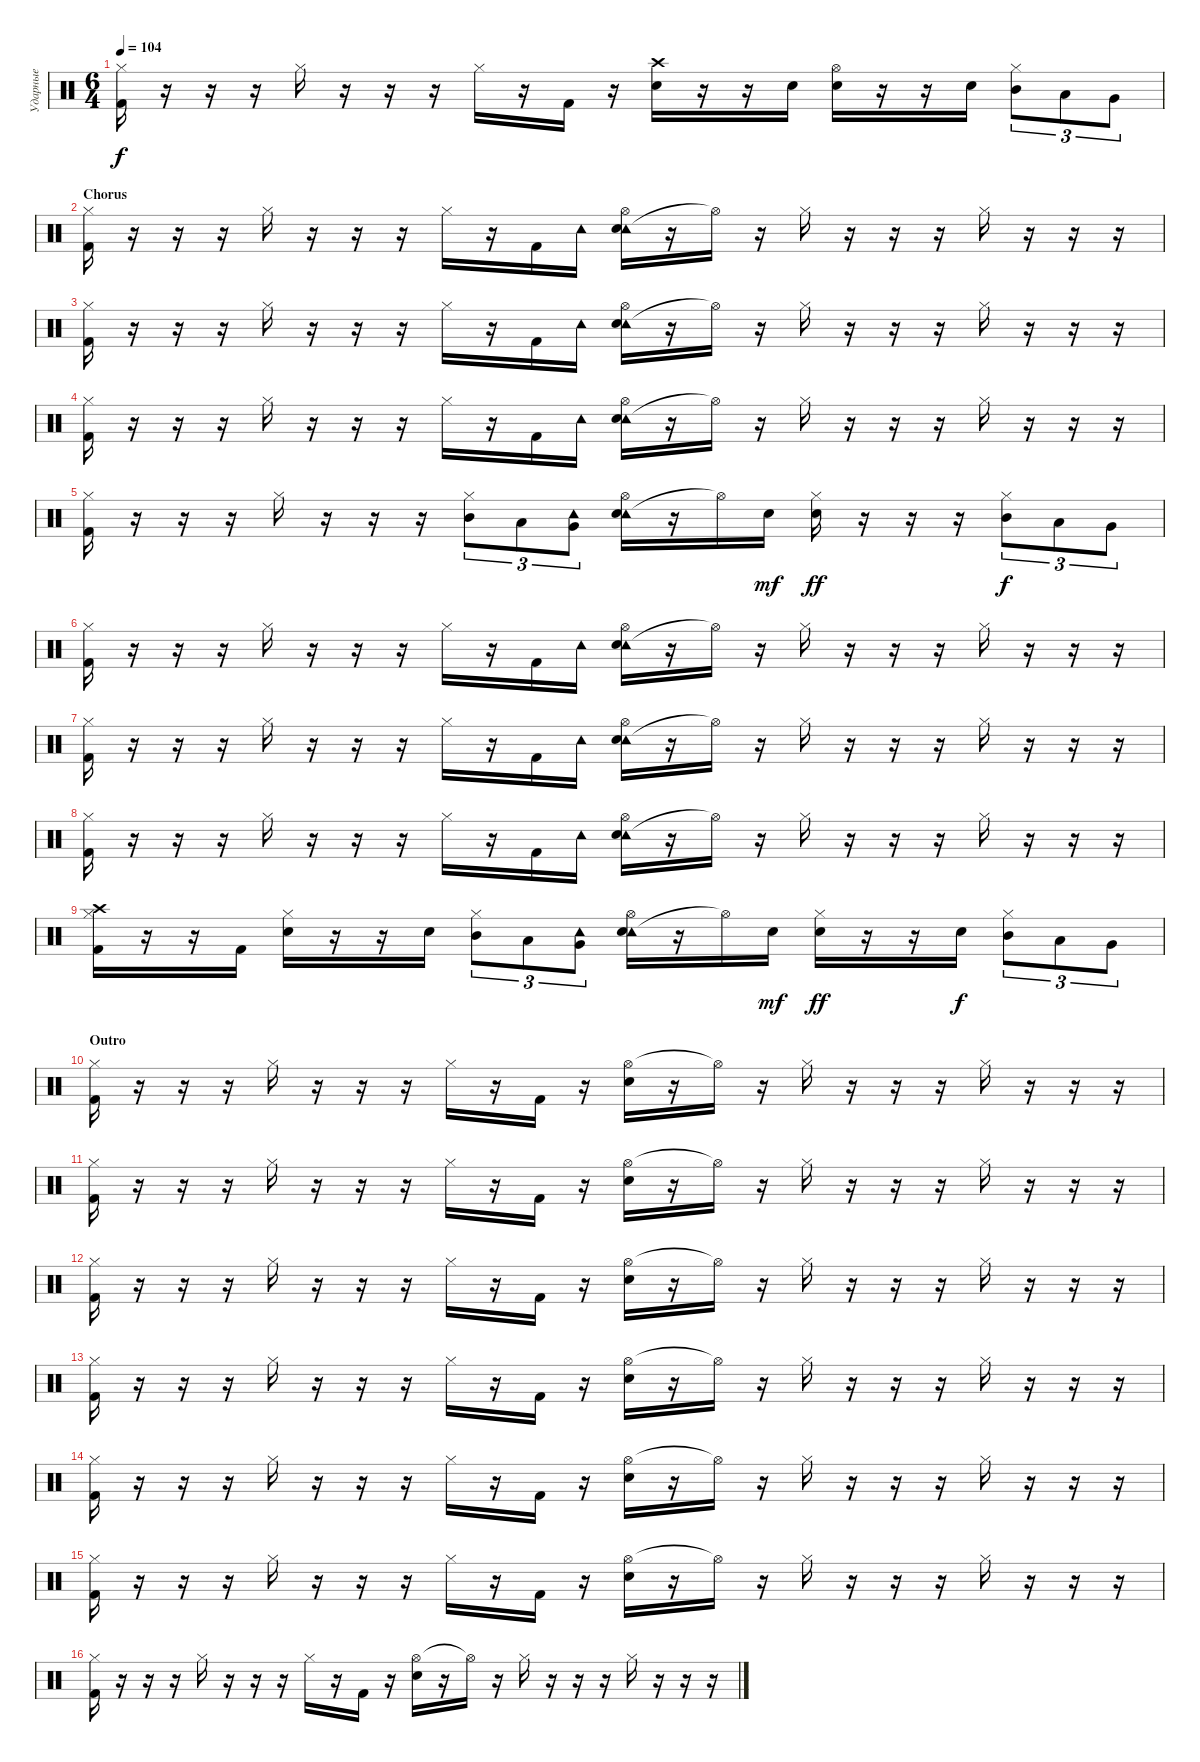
\track ("Ударные" "Ударные") {instrument percussion}
\staff {score}
\articulation defaults
\ts (6 4)
\tempo 104
\clef neutral
\ks c
("Hi-Hat (closed)" "Kick (hit) 2").16{dy f} r.16 r.16 r.16 "Hi-Hat (closed)".16 r.16 r.16 r.16 "Hi-Hat (closed)".16 r.16 "Kick (hit) 2".16 r.16 ("Crash high (hit)" "Electric Snare (hit)").16 r.16 r.16 "Electric Snare (hit)".16 ("Hi-Hat (open)" "Electric Snare (hit)").16 r.16 r.16 "Electric Snare (hit)".16 ("Hi-Hat (closed)" "Mid Tom (hit)").8{tu (3 2)} "Low Tom (hit)".8{tu (3 2)} "Very Low Tom (hit)".8{tu (3 2)} |
\section ("" "Chorus")
("Hi-Hat (closed)" "Kick (hit) 2").16 r.16 r.16 r.16 "Hi-Hat (closed)".16 r.16 r.16 r.16 "Hi-Hat (closed)".16 r.16 "Kick (hit) 2".16 "Tambourine (hit)".16 ("Tambourine (hit)" "Hi-Hat (open)" "Electric Snare (hit)").16 r.16 "Hi-Hat (open)"{t}.16 r.16 "Hi-Hat (closed)".16 r.16 r.16 r.16 "Hi-Hat (closed)".16 r.16 r.16 r.16 |
("Hi-Hat (closed)" "Kick (hit) 2").16 r.16 r.16 r.16 "Hi-Hat (closed)".16 r.16 r.16 r.16 "Hi-Hat (closed)".16 r.16 "Kick (hit) 2".16 "Tambourine (hit)".16 ("Tambourine (hit)" "Hi-Hat (open)" "Electric Snare (hit)").16 r.16 "Hi-Hat (open)"{t}.16 r.16 "Hi-Hat (closed)".16 r.16 r.16 r.16 "Hi-Hat (closed)".16 r.16 r.16 r.16 |
("Hi-Hat (closed)" "Kick (hit) 2").16 r.16 r.16 r.16 "Hi-Hat (closed)".16 r.16 r.16 r.16 "Hi-Hat (closed)".16 r.16 "Kick (hit) 2".16 "Tambourine (hit)".16 ("Tambourine (hit)" "Hi-Hat (open)" "Electric Snare (hit)").16 r.16 "Hi-Hat (open)"{t}.16 r.16 "Hi-Hat (closed)".16 r.16 r.16 r.16 "Hi-Hat (closed)".16 r.16 r.16 r.16 |
("Hi-Hat (closed)" "Kick (hit) 2").16 r.16 r.16 r.16 "Hi-Hat (closed)".16 r.16 r.16 r.16 ("Hi-Hat (closed)" "Mid Tom (hit)").8{tu (3 2)} "Low Tom (hit)".8{tu (3 2)} ("Tambourine (hit)" "Very Low Tom (hit)").8{tu (3 2)} ("Tambourine (hit)" "Hi-Hat (open)" "Electric Snare (hit)").16 r.16 "Hi-Hat (open)"{t}.16 "Electric Snare (hit)".16{dy mf} ("Hi-Hat (closed)" "Electric Snare (hit)").16{dy ff} r.16 r.16 r.16 ("Hi-Hat (closed)" "Mid Tom (hit)").8{tu (3 2) dy f} "Low Tom (hit)".8{tu (3 2)} "Very Low Tom (hit)".8{tu (3 2)} |
("Hi-Hat (closed)" "Kick (hit) 2").16 r.16 r.16 r.16 "Hi-Hat (closed)".16 r.16 r.16 r.16 "Hi-Hat (closed)".16 r.16 "Kick (hit) 2".16 "Tambourine (hit)".16 ("Tambourine (hit)" "Hi-Hat (open)" "Electric Snare (hit)").16 r.16 "Hi-Hat (open)"{t}.16 r.16 "Hi-Hat (closed)".16 r.16 r.16 r.16 "Hi-Hat (closed)".16 r.16 r.16 r.16 |
("Hi-Hat (closed)" "Kick (hit) 2").16 r.16 r.16 r.16 "Hi-Hat (closed)".16 r.16 r.16 r.16 "Hi-Hat (closed)".16 r.16 "Kick (hit) 2".16 "Tambourine (hit)".16 ("Tambourine (hit)" "Hi-Hat (open)" "Electric Snare (hit)").16 r.16 "Hi-Hat (open)"{t}.16 r.16 "Hi-Hat (closed)".16 r.16 r.16 r.16 "Hi-Hat (closed)".16 r.16 r.16 r.16 |
("Hi-Hat (closed)" "Kick (hit) 2").16 r.16 r.16 r.16 "Hi-Hat (closed)".16 r.16 r.16 r.16 "Hi-Hat (closed)".16 r.16 "Kick (hit) 2".16 "Tambourine (hit)".16 ("Tambourine (hit)" "Hi-Hat (open)" "Electric Snare (hit)").16 r.16 "Hi-Hat (open)"{t}.16 r.16 "Hi-Hat (closed)".16 r.16 r.16 r.16 "Hi-Hat (closed)".16 r.16 r.16 r.16 |
("Crash high (hit)" "Hi-Hat (closed)" "Kick (hit) 2").16 r.16 r.16 "Kick (hit) 2".16 ("Hi-Hat (closed)" "Electric Snare (hit)").16 r.16 r.16 "Electric Snare (hit)".16 ("Hi-Hat (closed)" "Mid Tom (hit)").8{tu (3 2)} "Low Tom (hit)".8{tu (3 2)} ("Tambourine (hit)" "Very Low Tom (hit)").8{tu (3 2)} ("Tambourine (hit)" "Hi-Hat (open)" "Electric Snare (hit)").16 r.16 "Hi-Hat (open)"{t}.16 "Electric Snare (hit)".16{dy mf} ("Hi-Hat (closed)" "Electric Snare (hit)").16{dy ff} r.16 r.16 "Electric Snare (hit)".16{dy f} ("Hi-Hat (closed)" "Mid Tom (hit)").8{tu (3 2)} "Low Tom (hit)".8{tu (3 2)} "Very Low Tom (hit)".8{tu (3 2)} |
\section ("" "Outro")
("Hi-Hat (closed)" "Kick (hit) 2").16 r.16 r.16 r.16 "Hi-Hat (closed)".16 r.16 r.16 r.16 "Hi-Hat (closed)".16 r.16 "Kick (hit) 2".16 r.16 ("Hi-Hat (open)" "Electric Snare (hit)").16 r.16 "Hi-Hat (open)"{t}.16 r.16 "Hi-Hat (closed)".16 r.16 r.16 r.16 "Hi-Hat (closed)".16 r.16 r.16 r.16 |
("Hi-Hat (closed)" "Kick (hit) 2").16 r.16 r.16 r.16 "Hi-Hat (closed)".16 r.16 r.16 r.16 "Hi-Hat (closed)".16 r.16 "Kick (hit) 2".16 r.16 ("Hi-Hat (open)" "Electric Snare (hit)").16 r.16 "Hi-Hat (open)"{t}.16 r.16 "Hi-Hat (closed)".16 r.16 r.16 r.16 "Hi-Hat (closed)".16 r.16 r.16 r.16 |
("Hi-Hat (closed)" "Kick (hit) 2").16 r.16 r.16 r.16 "Hi-Hat (closed)".16 r.16 r.16 r.16 "Hi-Hat (closed)".16 r.16 "Kick (hit) 2".16 r.16 ("Hi-Hat (open)" "Electric Snare (hit)").16 r.16 "Hi-Hat (open)"{t}.16 r.16 "Hi-Hat (closed)".16 r.16 r.16 r.16 "Hi-Hat (closed)".16 r.16 r.16 r.16 |
("Hi-Hat (closed)" "Kick (hit) 2").16 r.16 r.16 r.16 "Hi-Hat (closed)".16 r.16 r.16 r.16 "Hi-Hat (closed)".16 r.16 "Kick (hit) 2".16 r.16 ("Hi-Hat (open)" "Electric Snare (hit)").16 r.16 "Hi-Hat (open)"{t}.16 r.16 "Hi-Hat (closed)".16 r.16 r.16 r.16 "Hi-Hat (closed)".16 r.16 r.16 r.16 |
("Hi-Hat (closed)" "Kick (hit) 2").16 r.16 r.16 r.16 "Hi-Hat (closed)".16 r.16 r.16 r.16 "Hi-Hat (closed)".16 r.16 "Kick (hit) 2".16 r.16 ("Hi-Hat (open)" "Electric Snare (hit)").16 r.16 "Hi-Hat (open)"{t}.16 r.16 "Hi-Hat (closed)".16 r.16 r.16 r.16 "Hi-Hat (closed)".16 r.16 r.16 r.16 |
("Hi-Hat (closed)" "Kick (hit) 2").16 r.16 r.16 r.16 "Hi-Hat (closed)".16 r.16 r.16 r.16 "Hi-Hat (closed)".16 r.16 "Kick (hit) 2".16 r.16 ("Hi-Hat (open)" "Electric Snare (hit)").16 r.16 "Hi-Hat (open)"{t}.16 r.16 "Hi-Hat (closed)".16 r.16 r.16 r.16 "Hi-Hat (closed)".16 r.16 r.16 r.16 |
("Hi-Hat (closed)" "Kick (hit) 2").16 r.16 r.16 r.16 "Hi-Hat (closed)".16 r.16 r.16 r.16 "Hi-Hat (closed)".16 r.16 "Kick (hit) 2".16 r.16 ("Hi-Hat (open)" "Electric Snare (hit)").16 r.16 "Hi-Hat (open)"{t}.16 r.16 "Hi-Hat (closed)".16 r.16 r.16 r.16 "Hi-Hat (closed)".16 r.16 r.16 r.16
